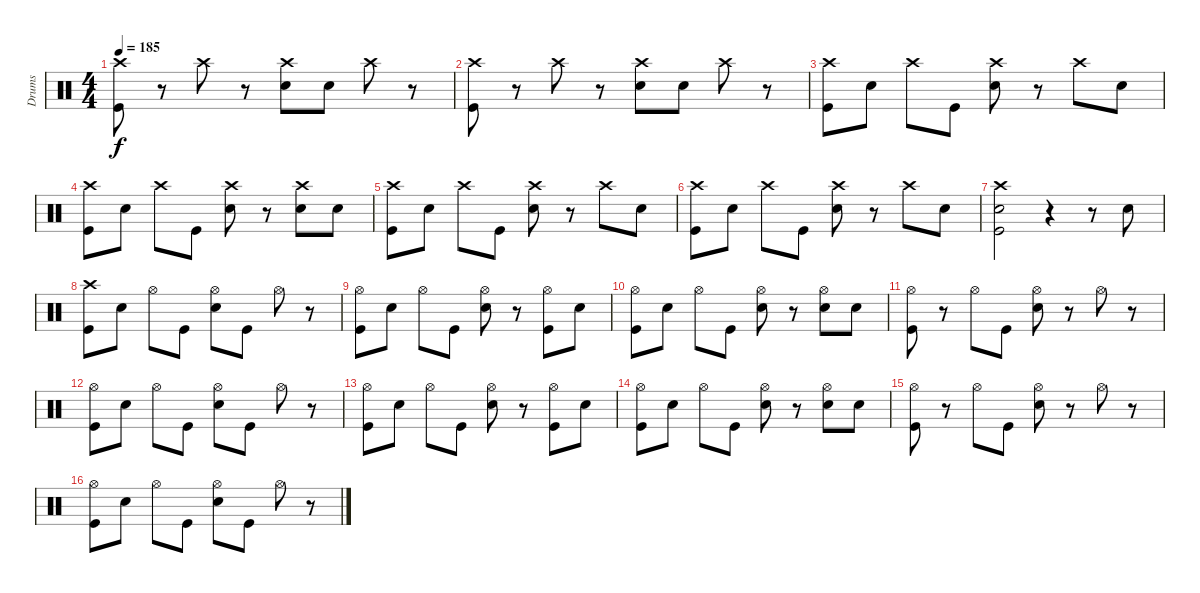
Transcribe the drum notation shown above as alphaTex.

\track ("Drums" "Drums") {instrument percussion}
\staff {score}
\articulation defaults
\ts (4 4)
\tempo 185
\clef neutral
\ks c
("Crash high (hit)" "Kick (hit)").8{dy f} r.8 "Crash high (hit)".8 r.8 ("Crash high (hit)" "Snare (hit) 2").8 "Snare (hit) 2".8 "Crash high (hit)".8 r.8 |
("Crash high (hit)" "Kick (hit)").8 r.8 "Crash high (hit)".8 r.8 ("Crash high (hit)" "Snare (hit) 2").8 "Snare (hit) 2".8 "Crash high (hit)".8 r.8 |
("Crash high (hit)" "Kick (hit)").8 "Snare (hit) 2".8 "Crash high (hit)".8 "Kick (hit)".8 ("Crash high (hit)" "Snare (hit) 2").8 r.8 "Crash high (hit)".8 "Snare (hit) 2".8 |
("Crash high (hit)" "Kick (hit)").8 "Snare (hit) 2".8 "Crash high (hit)".8 "Kick (hit)".8 ("Crash high (hit)" "Snare (hit) 2").8 r.8 ("Crash high (hit)" "Snare (hit) 2").8 "Snare (hit) 2".8 |
("Crash high (hit)" "Kick (hit)").8 "Snare (hit) 2".8 "Crash high (hit)".8 "Kick (hit)".8 ("Crash high (hit)" "Snare (hit) 2").8 r.8 "Crash high (hit)".8 "Snare (hit) 2".8 |
("Crash high (hit)" "Kick (hit)").8 "Snare (hit) 2".8 "Crash high (hit)".8 "Kick (hit)".8 ("Crash high (hit)" "Snare (hit) 2").8 r.8 "Crash high (hit)".8 "Snare (hit) 2".8 |
("Crash high (hit)" "Snare (hit) 2" "Kick (hit)").2 r.4 r.8 "Snare (hit) 2".8 |
("Crash high (hit)" "Kick (hit)").8 "Snare (hit) 2".8 "Hi-Hat (open)".8 "Kick (hit)".8 ("Hi-Hat (open)" "Snare (hit) 2").8 "Kick (hit)".8 "Hi-Hat (open)".8 r.8 |
("Hi-Hat (open)" "Kick (hit)").8 "Snare (hit) 2".8 "Hi-Hat (open)".8 "Kick (hit)".8 ("Hi-Hat (open)" "Snare (hit) 2").8 r.8 ("Hi-Hat (open)" "Kick (hit)").8 "Snare (hit) 2".8 |
("Hi-Hat (open)" "Kick (hit)").8 "Snare (hit) 2".8 "Hi-Hat (open)".8 "Kick (hit)".8 ("Hi-Hat (open)" "Snare (hit) 2").8 r.8 ("Hi-Hat (open)" "Snare (hit) 2").8 "Snare (hit) 2".8 |
("Hi-Hat (open)" "Kick (hit)").8 r.8 "Hi-Hat (open)".8 "Kick (hit)".8 ("Hi-Hat (open)" "Snare (hit) 2").8 r.8 "Hi-Hat (open)".8 r.8 |
("Hi-Hat (open)" "Kick (hit)").8 "Snare (hit) 2".8 "Hi-Hat (open)".8 "Kick (hit)".8 ("Hi-Hat (open)" "Snare (hit) 2").8 "Kick (hit)".8 "Hi-Hat (open)".8 r.8 |
("Hi-Hat (open)" "Kick (hit)").8 "Snare (hit) 2".8 "Hi-Hat (open)".8 "Kick (hit)".8 ("Hi-Hat (open)" "Snare (hit) 2").8 r.8 ("Hi-Hat (open)" "Kick (hit)").8 "Snare (hit) 2".8 |
("Hi-Hat (open)" "Kick (hit)").8 "Snare (hit) 2".8 "Hi-Hat (open)".8 "Kick (hit)".8 ("Hi-Hat (open)" "Snare (hit) 2").8 r.8 ("Hi-Hat (open)" "Snare (hit) 2").8 "Snare (hit) 2".8 |
("Hi-Hat (open)" "Kick (hit)").8 r.8 "Hi-Hat (open)".8 "Kick (hit)".8 ("Hi-Hat (open)" "Snare (hit) 2").8 r.8 "Hi-Hat (open)".8 r.8 |
("Hi-Hat (open)" "Kick (hit)").8 "Snare (hit) 2".8 "Hi-Hat (open)".8 "Kick (hit)".8 ("Hi-Hat (open)" "Snare (hit) 2").8 "Kick (hit)".8 "Hi-Hat (open)".8 r.8
